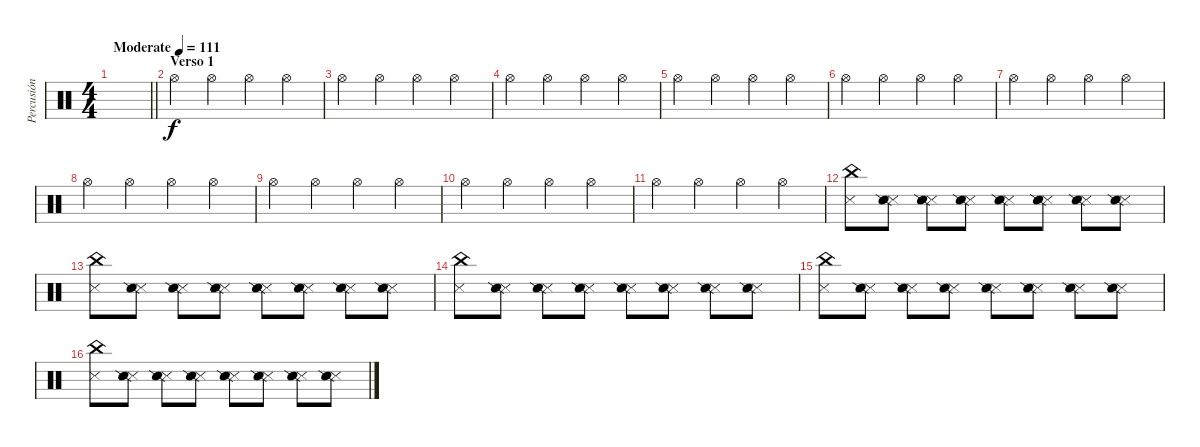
\track ("Percusión" "Percusión") {instrument percussion}
\staff {score}
\articulation defaults
\ts (4 4)
\tempo (111 "Moderate")
\clef neutral
\barLineRight lightlight
\ks c
|
\section ("" "Verso 1")
"Hi-Hat (open)".4 "Hi-Hat (open)".4 "Hi-Hat (open)".4 "Hi-Hat (open)".4 |
"Hi-Hat (open)".4 "Hi-Hat (open)".4 "Hi-Hat (open)".4 "Hi-Hat (open)".4 |
"Hi-Hat (open)".4 "Hi-Hat (open)".4 "Hi-Hat (open)".4 "Hi-Hat (open)".4 |
"Hi-Hat (open)".4 "Hi-Hat (open)".4 "Hi-Hat (open)".4 "Hi-Hat (open)".4 |
"Hi-Hat (open)".4 "Hi-Hat (open)".4 "Hi-Hat (open)".4 "Hi-Hat (open)".4 |
"Hi-Hat (open)".4 "Hi-Hat (open)".4 "Hi-Hat (open)".4 "Hi-Hat (open)".4 |
"Hi-Hat (open)".4 "Hi-Hat (open)".4 "Hi-Hat (open)".4 "Hi-Hat (open)".4 |
"Hi-Hat (open)".4 "Hi-Hat (open)".4 "Hi-Hat (open)".4 "Hi-Hat (open)".4 |
"Hi-Hat (open)".4 "Hi-Hat (open)".4 "Hi-Hat (open)".4 "Hi-Hat (open)".4 |
"Hi-Hat (open)".4 "Hi-Hat (open)".4 "Hi-Hat (open)".4 "Hi-Hat (open)".4 |
("Snare (side stick) 3" "China (hit)").8 ("Snare (side stick) 3" "Snare (side stick) 2").8 ("Snare (side stick) 3" "Snare (side stick) 2").8 ("Snare (side stick) 3" "Snare (side stick) 2").8 ("Snare (side stick) 3" "Snare (side stick) 2").8 ("Snare (side stick) 3" "Snare (side stick) 2").8 ("Snare (side stick) 3" "Snare (side stick) 2").8 ("Snare (side stick) 3" "Snare (side stick) 2").8 |
("Snare (side stick) 3" "China (hit)").8 ("Snare (side stick) 3" "Snare (side stick) 2").8 ("Snare (side stick) 3" "Snare (side stick) 2").8 ("Snare (side stick) 3" "Snare (side stick) 2").8 ("Snare (side stick) 3" "Snare (side stick) 2").8 ("Snare (side stick) 3" "Snare (side stick) 2").8 ("Snare (side stick) 3" "Snare (side stick) 2").8 ("Snare (side stick) 3" "Snare (side stick) 2").8 |
("Snare (side stick) 3" "China (hit)").8 ("Snare (side stick) 3" "Snare (side stick) 2").8 ("Snare (side stick) 3" "Snare (side stick) 2").8 ("Snare (side stick) 3" "Snare (side stick) 2").8 ("Snare (side stick) 3" "Snare (side stick) 2").8 ("Snare (side stick) 3" "Snare (side stick) 2").8 ("Snare (side stick) 3" "Snare (side stick) 2").8 ("Snare (side stick) 3" "Snare (side stick) 2").8 |
("Snare (side stick) 3" "China (hit)").8 ("Snare (side stick) 3" "Snare (side stick) 2").8 ("Snare (side stick) 3" "Snare (side stick) 2").8 ("Snare (side stick) 3" "Snare (side stick) 2").8 ("Snare (side stick) 3" "Snare (side stick) 2").8 ("Snare (side stick) 3" "Snare (side stick) 2").8 ("Snare (side stick) 3" "Snare (side stick) 2").8 ("Snare (side stick) 3" "Snare (side stick) 2").8 |
("Snare (side stick) 3" "China (hit)").8 ("Snare (side stick) 3" "Snare (side stick) 2").8 ("Snare (side stick) 3" "Snare (side stick) 2").8 ("Snare (side stick) 3" "Snare (side stick) 2").8 ("Snare (side stick) 3" "Snare (side stick) 2").8 ("Snare (side stick) 3" "Snare (side stick) 2").8 ("Snare (side stick) 3" "Snare (side stick) 2").8 ("Snare (side stick) 3" "Snare (side stick) 2").8
